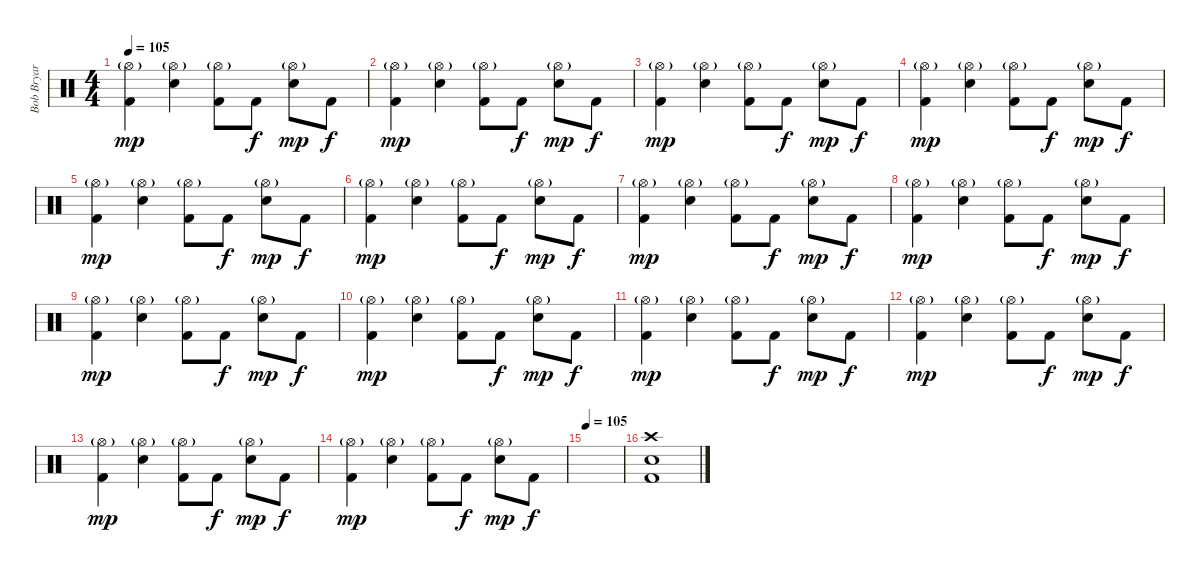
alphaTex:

\track ("Bob Bryar" "Bob Bryar") {instrument percussion}
\staff {score}
\articulation defaults
\ts (4 4)
\tempo 105
\clef neutral
\ks c
("Hi-Hat (open)"{g} "Kick (hit) 2").4{dy mp} ("Hi-Hat (open)"{g} "Electric Snare (hit)").4 ("Hi-Hat (open)"{g} "Kick (hit) 2").8 "Kick (hit) 2".8{dy f} ("Hi-Hat (open)"{g} "Electric Snare (hit)").8{dy mp} "Kick (hit) 2".8{dy f} |
("Hi-Hat (open)"{g} "Kick (hit) 2").4{dy mp} ("Hi-Hat (open)"{g} "Electric Snare (hit)").4 ("Hi-Hat (open)"{g} "Kick (hit) 2").8 "Kick (hit) 2".8{dy f} ("Hi-Hat (open)"{g} "Electric Snare (hit)").8{dy mp} "Kick (hit) 2".8{dy f} |
("Hi-Hat (open)"{g} "Kick (hit) 2").4{dy mp} ("Hi-Hat (open)"{g} "Electric Snare (hit)").4 ("Hi-Hat (open)"{g} "Kick (hit) 2").8 "Kick (hit) 2".8{dy f} ("Hi-Hat (open)"{g} "Electric Snare (hit)").8{dy mp} "Kick (hit) 2".8{dy f} |
("Hi-Hat (open)"{g} "Kick (hit) 2").4{dy mp} ("Hi-Hat (open)"{g} "Electric Snare (hit)").4 ("Hi-Hat (open)"{g} "Kick (hit) 2").8 "Kick (hit) 2".8{dy f} ("Hi-Hat (open)"{g} "Electric Snare (hit)").8{dy mp} "Kick (hit) 2".8{dy f} |
("Hi-Hat (open)"{g} "Kick (hit) 2").4{dy mp} ("Hi-Hat (open)"{g} "Electric Snare (hit)").4 ("Hi-Hat (open)"{g} "Kick (hit) 2").8 "Kick (hit) 2".8{dy f} ("Hi-Hat (open)"{g} "Electric Snare (hit)").8{dy mp} "Kick (hit) 2".8{dy f} |
("Hi-Hat (open)"{g} "Kick (hit) 2").4{dy mp} ("Hi-Hat (open)"{g} "Electric Snare (hit)").4 ("Hi-Hat (open)"{g} "Kick (hit) 2").8 "Kick (hit) 2".8{dy f} ("Hi-Hat (open)"{g} "Electric Snare (hit)").8{dy mp} "Kick (hit) 2".8{dy f} |
("Hi-Hat (open)"{g} "Kick (hit) 2").4{dy mp} ("Hi-Hat (open)"{g} "Electric Snare (hit)").4 ("Hi-Hat (open)"{g} "Kick (hit) 2").8 "Kick (hit) 2".8{dy f} ("Hi-Hat (open)"{g} "Electric Snare (hit)").8{dy mp} "Kick (hit) 2".8{dy f} |
("Hi-Hat (open)"{g} "Kick (hit) 2").4{dy mp} ("Hi-Hat (open)"{g} "Electric Snare (hit)").4 ("Hi-Hat (open)"{g} "Kick (hit) 2").8 "Kick (hit) 2".8{dy f} ("Hi-Hat (open)"{g} "Electric Snare (hit)").8{dy mp} "Kick (hit) 2".8{dy f} |
("Hi-Hat (open)"{g} "Kick (hit) 2").4{dy mp} ("Hi-Hat (open)"{g} "Electric Snare (hit)").4 ("Hi-Hat (open)"{g} "Kick (hit) 2").8 "Kick (hit) 2".8{dy f} ("Hi-Hat (open)"{g} "Electric Snare (hit)").8{dy mp} "Kick (hit) 2".8{dy f} |
("Hi-Hat (open)"{g} "Kick (hit) 2").4{dy mp} ("Hi-Hat (open)"{g} "Electric Snare (hit)").4 ("Hi-Hat (open)"{g} "Kick (hit) 2").8 "Kick (hit) 2".8{dy f} ("Hi-Hat (open)"{g} "Electric Snare (hit)").8{dy mp} "Kick (hit) 2".8{dy f} |
("Hi-Hat (open)"{g} "Kick (hit) 2").4{dy mp} ("Hi-Hat (open)"{g} "Electric Snare (hit)").4 ("Hi-Hat (open)"{g} "Kick (hit) 2").8 "Kick (hit) 2".8{dy f} ("Hi-Hat (open)"{g} "Electric Snare (hit)").8{dy mp} "Kick (hit) 2".8{dy f} |
("Hi-Hat (open)"{g} "Kick (hit) 2").4{dy mp} ("Hi-Hat (open)"{g} "Electric Snare (hit)").4 ("Hi-Hat (open)"{g} "Kick (hit) 2").8 "Kick (hit) 2".8{dy f} ("Hi-Hat (open)"{g} "Electric Snare (hit)").8{dy mp} "Kick (hit) 2".8{dy f} |
("Hi-Hat (open)"{g} "Kick (hit) 2").4{dy mp} ("Hi-Hat (open)"{g} "Electric Snare (hit)").4 ("Hi-Hat (open)"{g} "Kick (hit) 2").8 "Kick (hit) 2".8{dy f} ("Hi-Hat (open)"{g} "Electric Snare (hit)").8{dy mp} "Kick (hit) 2".8{dy f} |
("Hi-Hat (open)"{g} "Kick (hit) 2").4{dy mp} ("Hi-Hat (open)"{g} "Electric Snare (hit)").4 ("Hi-Hat (open)"{g} "Kick (hit) 2").8 "Kick (hit) 2".8{dy f} ("Hi-Hat (open)"{g} "Electric Snare (hit)").8{dy mp} "Kick (hit) 2".8{dy f} |
\tempo 105
|
("Crash high (hit)" "Electric Snare (hit)" "Kick (hit) 2").1
